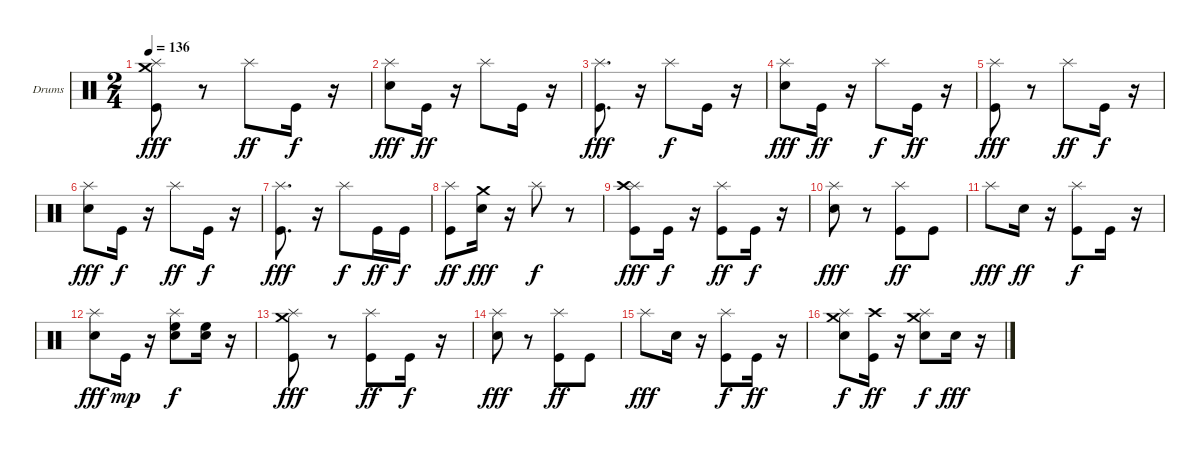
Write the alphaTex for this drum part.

\bracketExtendMode groupsimilarinstruments
\firstSystemTrackNameOrientation horizontal
\otherSystemsTrackNameOrientation horizontal
\track ("Drumkit" "Drums") {solo instrument percussion}
\staff {score}
\articulation defaults
\ts (2 4)
\tempo 136
\clef neutral
\ks c
("Crash medium (hit)" "Splash (hit)" "Kick (hit)").8{dy fff} r.8 "Splash (hit)".8{dy ff} "Kick (hit)".16{dy f} r.16 |
("Splash (hit)" "Snare (hit) 2").8{dy fff} "Kick (hit)".16{dy ff} r.16 "Splash (hit)".8 "Kick (hit)".16 r.16 |
("Splash (hit)" "Kick (hit)").8{d dy fff} r.16 "Splash (hit)".8{dy f} "Kick (hit)".16 r.16 |
("Splash (hit)" "Snare (hit) 2").8{dy fff} "Kick (hit)".16{dy ff} r.16 "Splash (hit)".8{dy f} "Kick (hit)".16{dy ff} r.16 |
("Splash (hit)" "Kick (hit)").8{dy fff} r.8 "Splash (hit)".8{dy ff} "Kick (hit)".16{dy f} r.16 |
("Splash (hit)" "Snare (hit) 2").8{dy fff} "Kick (hit)".16{dy f} r.16 "Splash (hit)".8{dy ff} "Kick (hit)".16{dy f} r.16 |
("Splash (hit)" "Kick (hit)").8{d dy fff} r.16 "Splash (hit)".8{dy f} "Kick (hit)".16{dy ff} "Kick (hit)".16{dy f} |
("Kick (hit)" "Splash (hit)").8{dy ff} ("Crash medium (hit)" "Snare (hit) 2").16{dy fff} r.16 "Splash (hit)".8{dy f} r.8 |
("Splash (hit)" "Kick (hit)" "Crash high (hit)").8{dy fff} "Kick (hit)".16{dy f} r.16 ("Splash (hit)" "Kick (hit)").8{dy ff} "Kick (hit)".16{dy f} r.16 |
("Splash (hit)" "Snare (hit) 2").8{dy fff} r.8 ("Splash (hit)" "Kick (hit)").8{dy ff} "Kick (hit)".8 |
"Splash (hit)".8{dy fff} "Snare (hit) 2".16{dy ff} r.16 ("Splash (hit)" "Kick (hit)").8{dy f} "Kick (hit)".16 r.16 |
("Splash (hit)" "Snare (hit) 2").8{dy fff} "Kick (hit)".16{dy mp} r.16 ("Splash (hit)" "Snare (hit) 2" "High Floor Tom (hit)").8{dy f} ("High Floor Tom (hit)" "Snare (hit) 2").16 r.16 |
("Crash medium (hit)" "Splash (hit)" "Kick (hit)").8{dy fff} r.8 ("Splash (hit)" "Kick (hit)").8{dy ff} "Kick (hit)".16{dy f} r.16 |
("Splash (hit)" "Snare (hit) 2").8{dy fff} r.8 ("Splash (hit)" "Kick (hit)").8{dy ff} "Kick (hit)".8 |
"Splash (hit)".8{dy fff} "Snare (hit) 2".16 r.16 ("Splash (hit)" "Kick (hit)").8{dy f} "Kick (hit)".16{dy ff} r.16 |
("Crash medium (hit)" "Splash (hit)" "Snare (hit) 2").8{dy f} ("Crash high (hit)" "Kick (hit)").16{dy ff} r.16 ("Splash (hit)" "Snare (hit) 2" "Crash medium (hit)").8{dy f} "Snare (hit) 2".16{dy fff} r.16
